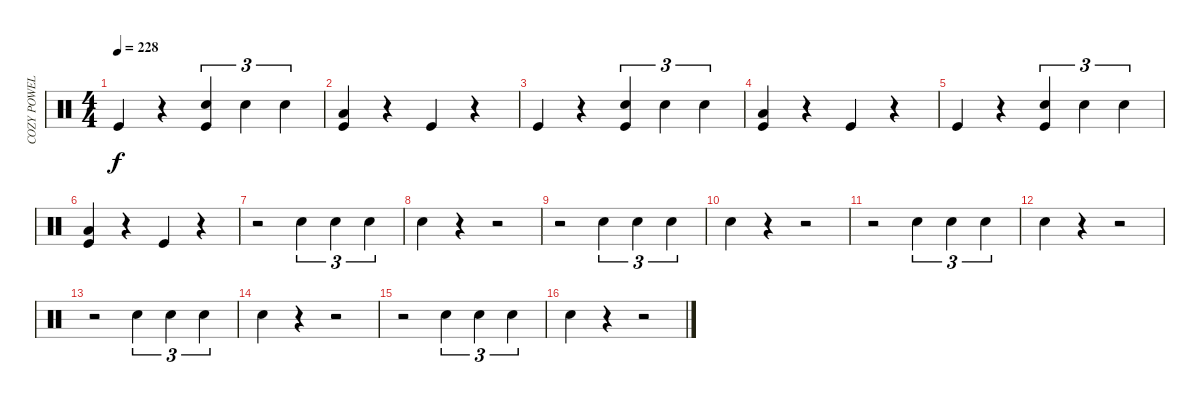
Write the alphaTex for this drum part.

\track ("COZY POWELL" "COZY POWEL") {instrument percussion}
\staff {score}
\articulation defaults
\ts (4 4)
\tempo 228
\clef neutral
\ks c "Kick (hit)".4{dy f}
r.4 ("Snare (hit) 2" "Kick (hit)").4{tu (3 2)} "Snare (hit) 2".4{tu (3 2)} "Snare (hit) 2".4{tu (3 2)} |
("Low Tom (hit)" "Kick (hit)").4 r.4 "Kick (hit)".4 r.4 |
"Kick (hit)".4 r.4 ("Snare (hit) 2" "Kick (hit)").4{tu (3 2)} "Snare (hit) 2".4{tu (3 2)} "Snare (hit) 2".4{tu (3 2)} |
("Low Tom (hit)" "Kick (hit)").4 r.4 "Kick (hit)".4 r.4 |
"Kick (hit)".4 r.4 ("Snare (hit) 2" "Kick (hit)").4{tu (3 2)} "Snare (hit) 2".4{tu (3 2)} "Snare (hit) 2".4{tu (3 2)} |
("Low Tom (hit)" "Kick (hit)").4 r.4 "Kick (hit)".4 r.4 |
r.2 "Snare (hit) 2".4{tu (3 2)} "Snare (hit) 2".4{tu (3 2)} "Snare (hit) 2".4{tu (3 2)} |
"Snare (hit) 2".4 r.4 r.2 |
r.2 "Snare (hit) 2".4{tu (3 2)} "Snare (hit) 2".4{tu (3 2)} "Snare (hit) 2".4{tu (3 2)} |
"Snare (hit) 2".4 r.4 r.2 |
r.2 "Snare (hit) 2".4{tu (3 2)} "Snare (hit) 2".4{tu (3 2)} "Snare (hit) 2".4{tu (3 2)} |
"Snare (hit) 2".4 r.4 r.2 |
r.2 "Snare (hit) 2".4{tu (3 2)} "Snare (hit) 2".4{tu (3 2)} "Snare (hit) 2".4{tu (3 2)} |
"Snare (hit) 2".4 r.4 r.2 |
r.2 "Snare (hit) 2".4{tu (3 2)} "Snare (hit) 2".4{tu (3 2)} "Snare (hit) 2".4{tu (3 2)} |
"Snare (hit) 2".4 r.4 r.2
